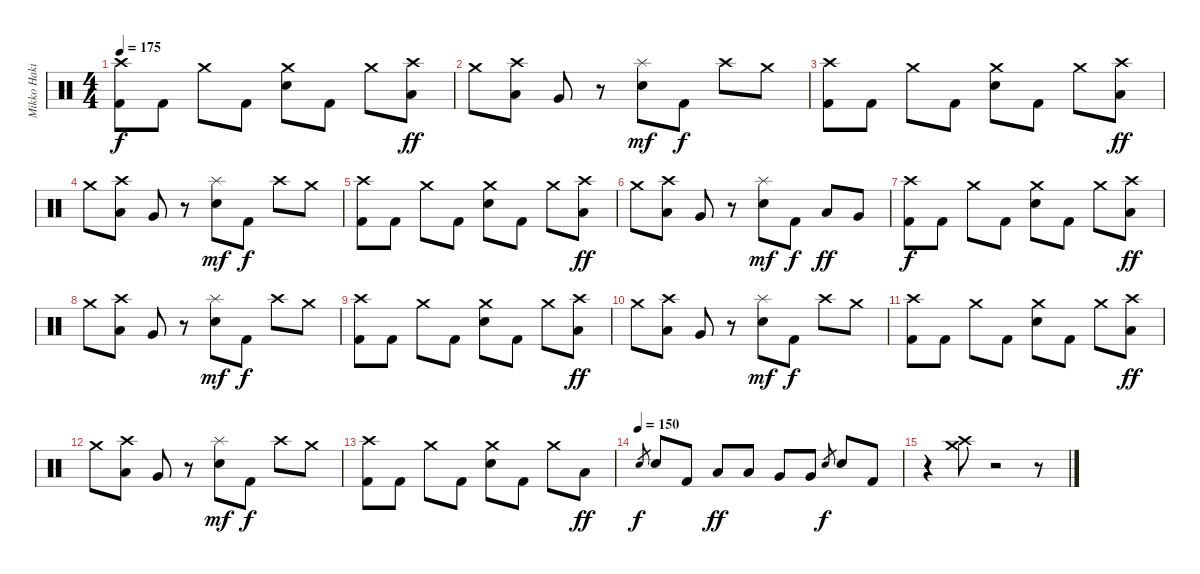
\track ("Mikko Hakila - Drums" "Mikko Haki") {instrument percussion}
\staff {score}
\articulation defaults
\ts (4 4)
\tempo 175
\clef neutral
\ks c
("Crash high (hit)" "Kick (hit) 2").8{dy f} "Kick (hit) 2".8 "Crash medium (hit)".8 "Kick (hit) 2".8 ("Crash medium (hit)" "Electric Snare (hit)").8 "Kick (hit) 2".8 "Crash medium (hit)".8 ("Crash high (hit)" "Low Tom (hit)").8{dy ff} |
"Crash medium (hit)".8 ("Crash high (hit)" "Low Tom (hit)").8 "Very Low Tom (hit)".8 r.8 ("Splash (hit)" "Electric Snare (hit)").8{dy mf} "Kick (hit) 2".8{dy f} "Crash high (hit)".8 "Crash medium (hit)".8 |
("Crash high (hit)" "Kick (hit) 2").8 "Kick (hit) 2".8 "Crash medium (hit)".8 "Kick (hit) 2".8 ("Crash medium (hit)" "Electric Snare (hit)").8 "Kick (hit) 2".8 "Crash medium (hit)".8 ("Crash high (hit)" "Low Tom (hit)").8{dy ff} |
"Crash medium (hit)".8 ("Crash high (hit)" "Low Tom (hit)").8 "Very Low Tom (hit)".8 r.8 ("Splash (hit)" "Electric Snare (hit)").8{dy mf} "Kick (hit) 2".8{dy f} "Crash high (hit)".8 "Crash medium (hit)".8 |
("Crash high (hit)" "Kick (hit) 2").8 "Kick (hit) 2".8 "Crash medium (hit)".8 "Kick (hit) 2".8 ("Crash medium (hit)" "Electric Snare (hit)").8 "Kick (hit) 2".8 "Crash medium (hit)".8 ("Crash high (hit)" "Low Tom (hit)").8{dy ff} |
"Crash medium (hit)".8 ("Crash high (hit)" "Low Tom (hit)").8 "Very Low Tom (hit)".8 r.8 ("Splash (hit)" "Electric Snare (hit)").8{dy mf} "Kick (hit) 2".8{dy f} "Low Tom (hit)".8{dy ff} "Very Low Tom (hit)".8 |
("Crash high (hit)" "Kick (hit) 2").8{dy f} "Kick (hit) 2".8 "Crash medium (hit)".8 "Kick (hit) 2".8 ("Crash medium (hit)" "Electric Snare (hit)").8 "Kick (hit) 2".8 "Crash medium (hit)".8 ("Crash high (hit)" "Low Tom (hit)").8{dy ff} |
"Crash medium (hit)".8 ("Crash high (hit)" "Low Tom (hit)").8 "Very Low Tom (hit)".8 r.8 ("Splash (hit)" "Electric Snare (hit)").8{dy mf} "Kick (hit) 2".8{dy f} "Crash high (hit)".8 "Crash medium (hit)".8 |
("Crash high (hit)" "Kick (hit) 2").8 "Kick (hit) 2".8 "Crash medium (hit)".8 "Kick (hit) 2".8 ("Crash medium (hit)" "Electric Snare (hit)").8 "Kick (hit) 2".8 "Crash medium (hit)".8 ("Crash high (hit)" "Low Tom (hit)").8{dy ff} |
"Crash medium (hit)".8 ("Crash high (hit)" "Low Tom (hit)").8 "Very Low Tom (hit)".8 r.8 ("Splash (hit)" "Electric Snare (hit)").8{dy mf} "Kick (hit) 2".8{dy f} "Crash high (hit)".8 "Crash medium (hit)".8 |
("Crash high (hit)" "Kick (hit) 2").8 "Kick (hit) 2".8 "Crash medium (hit)".8 "Kick (hit) 2".8 ("Crash medium (hit)" "Electric Snare (hit)").8 "Kick (hit) 2".8 "Crash medium (hit)".8 ("Crash high (hit)" "Low Tom (hit)").8{dy ff} |
"Crash medium (hit)".8 ("Crash high (hit)" "Low Tom (hit)").8 "Very Low Tom (hit)".8 r.8 ("Splash (hit)" "Electric Snare (hit)").8{dy mf} "Kick (hit) 2".8{dy f} "Crash high (hit)".8 "Crash medium (hit)".8 |
("Crash high (hit)" "Kick (hit) 2").8 "Kick (hit) 2".8 "Crash medium (hit)".8 "Kick (hit) 2".8 ("Crash medium (hit)" "Electric Snare (hit)").8 "Kick (hit) 2".8 "Crash medium (hit)".8 "Low Tom (hit)".8{dy ff} |
\tempo (150)
"Electric Snare (hit)".8{gr dy f} "Electric Snare (hit)".8 "Kick (hit) 2".8 "Low Tom (hit)".8{dy ff} "Low Tom (hit)".8 "Very Low Tom (hit)".8 "Very Low Tom (hit)".8 "Electric Snare (hit)".8{gr dy f} "Electric Snare (hit)".8 "Kick (hit) 2".8 |
r.4 ("Crash medium (hit)" "Crash high (hit)").8 r.2 r.8
